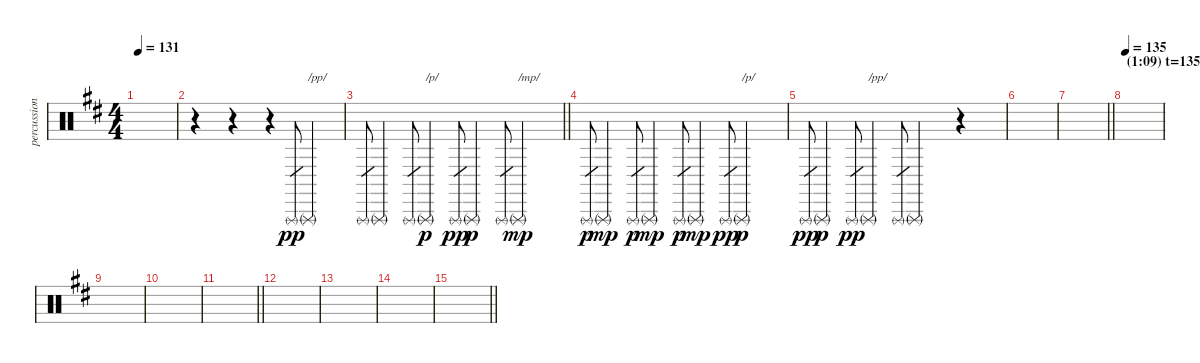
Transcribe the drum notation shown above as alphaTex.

\track ("percussion" "percussion") {instrument percussion}
\staff {score}
\articulation defaults
\ts (4 4)
\tempo 131
\clef neutral
\ks d
|
r.4 r.4 r.4 "Triangle (rnute)".8{gr dy pp} "Triangle (rnute)".4{txt "/pp/"} |
\barLineRight lightlight "Triangle (rnute)".8{gr} "Triangle (rnute)".4 "Triangle (rnute)".8{gr} "Triangle (rnute)".4{txt "/p/" dy p} "Triangle (rnute)".8{gr dy pp} "Triangle (rnute)".4{dy p} "Triangle (rnute)".8{gr} "Triangle (rnute)".4{txt "/mp/" dy mp}
|
"Triangle (rnute)".8{gr dy p} "Triangle (rnute)".4{dy mp} "Triangle (rnute)".8{gr dy p} "Triangle (rnute)".4{dy mp} "Triangle (rnute)".8{gr dy p} "Triangle (rnute)".4{dy mp} "Triangle (rnute)".8{gr dy pp} "Triangle (rnute)".4{txt "/p/" dy p} |
"Triangle (rnute)".8{gr dy pp} "Triangle (rnute)".4{dy p} "Triangle (rnute)".8{gr dy pp} "Triangle (rnute)".4{txt "/pp/"} "Triangle (rnute)".8{gr} "Triangle (rnute)".4 r.4 |
|
\barLineRight lightlight
|
\section ("" "(1:09) t=135")
\tempo 135
|
|
|
\barLineRight lightlight
|
|
|
|
\barLineRight lightlight
